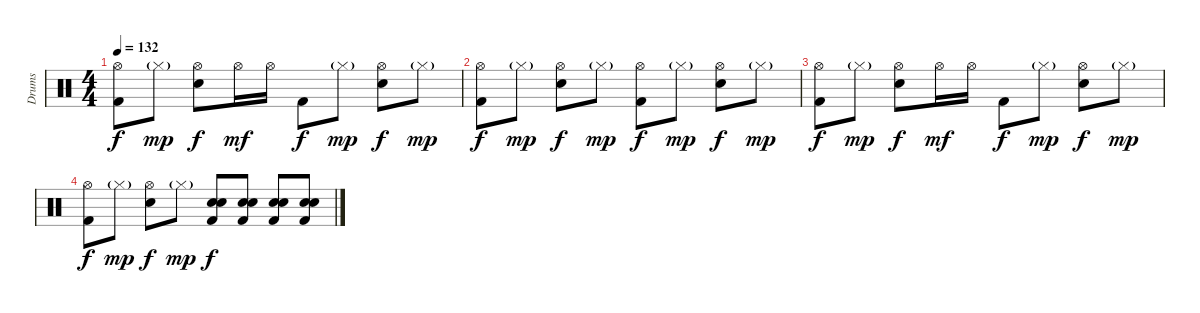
\track ("Drums" "Drums") {instrument percussion}
\staff {score}
\articulation defaults
\ts (4 4)
\tempo 132
\clef neutral
\ks c
("Hi-Hat (open)" "Kick (hit) 2").8{dy f} "Hi-Hat (closed)"{g}.8{dy mp} ("Hi-Hat (open)" "Snare (hit) 2").8{dy f} "Hi-Hat (open)".16{dy mf} "Hi-Hat (open)".16 "Kick (hit) 2".8{dy f} "Hi-Hat (closed)"{g}.8{dy mp} ("Hi-Hat (open)" "Snare (hit) 2").8{dy f} "Hi-Hat (closed)"{g}.8{dy mp} |
("Hi-Hat (open)" "Kick (hit) 2").8{dy f} "Hi-Hat (closed)"{g}.8{dy mp} ("Hi-Hat (open)" "Snare (hit) 2").8{dy f} "Hi-Hat (closed)"{g}.8{dy mp} ("Hi-Hat (open)" "Kick (hit) 2").8{dy f} "Hi-Hat (closed)"{g}.8{dy mp} ("Hi-Hat (open)" "Snare (hit) 2").8{dy f} "Hi-Hat (closed)"{g}.8{dy mp} |
("Hi-Hat (open)" "Kick (hit) 2").8{dy f} "Hi-Hat (closed)"{g}.8{dy mp} ("Hi-Hat (open)" "Snare (hit) 2").8{dy f} "Hi-Hat (open)".16{dy mf} "Hi-Hat (open)".16 "Kick (hit) 2".8{dy f} "Hi-Hat (closed)"{g}.8{dy mp} ("Hi-Hat (open)" "Snare (hit) 2").8{dy f} "Hi-Hat (closed)"{g}.8{dy mp} |
("Hi-Hat (open)" "Kick (hit) 2").8{dy f} "Hi-Hat (closed)"{g}.8{dy mp} ("Hi-Hat (open)" "Snare (hit) 2").8{dy f} "Hi-Hat (closed)"{g}.8{dy mp} ("Snare (hit) 2" "Electric Snare (hit)" "Kick (hit) 2").8{dy f} ("Snare (hit) 2" "Electric Snare (hit)" "Kick (hit) 2").8 ("Snare (hit) 2" "Electric Snare (hit)" "Kick (hit) 2").8 ("Snare (hit) 2" "Electric Snare (hit)" "Kick (hit) 2").8
